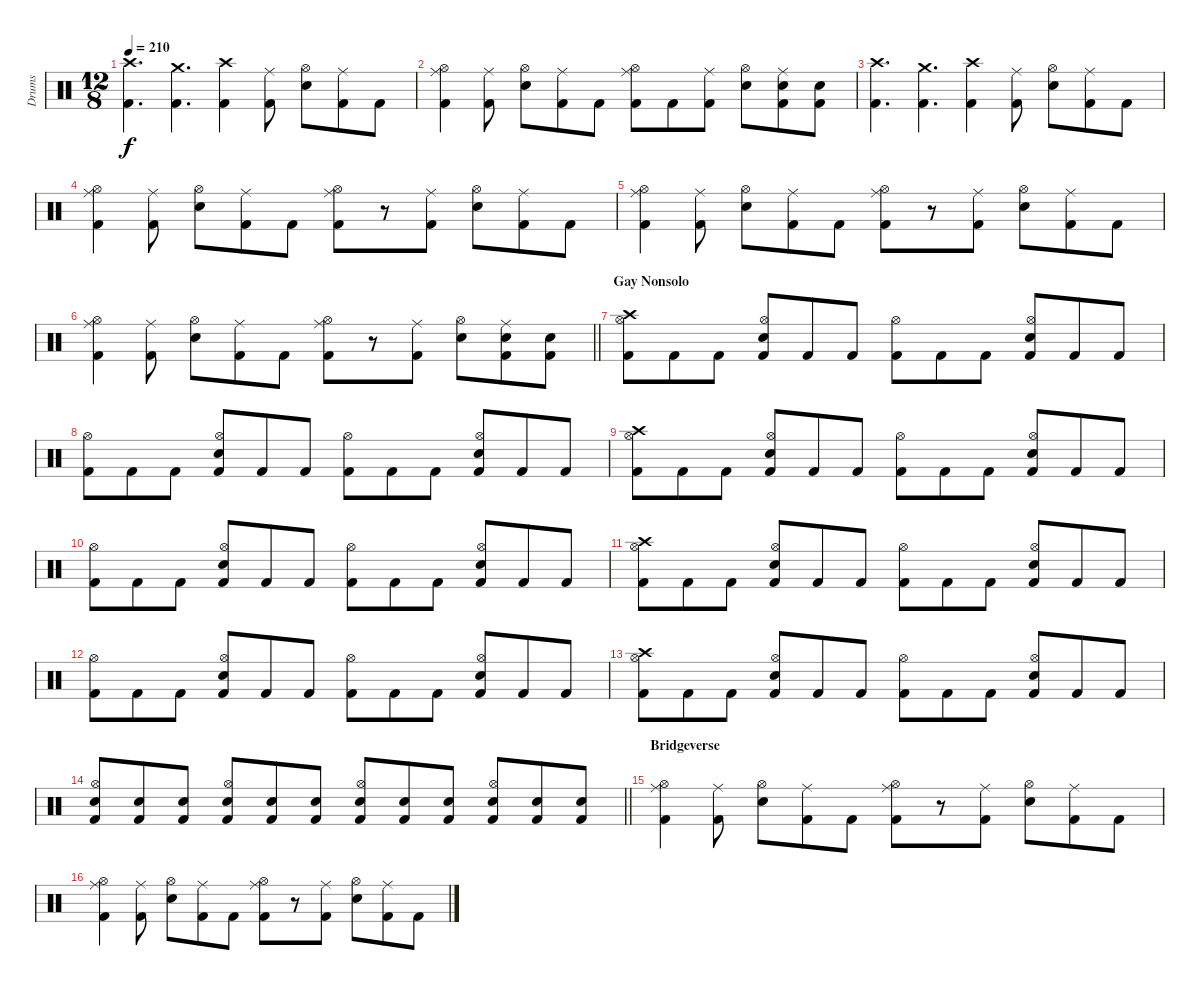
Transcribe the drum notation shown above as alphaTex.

\track ("Drums" "Drums") {instrument percussion}
\staff {score}
\articulation defaults
\ts (12 8)
\tempo 210
\clef neutral
\ks c
("Crash high (hit)" "Kick (hit) 2").4{d dy f} ("Crash medium (hit)" "Kick (hit) 2").4{d} ("Crash high (hit)" "Kick (hit) 2").4 ("Ride (middle)" "Kick (hit) 2").8 ("Hi-Hat (open)" "Snare (hit) 2").8 ("Ride (middle)" "Kick (hit) 2").8 "Kick (hit) 2".8 |
("Ride (middle)" "Hi-Hat (open)" "Kick (hit) 2").4 ("Ride (middle)" "Kick (hit) 2").8 ("Hi-Hat (open)" "Snare (hit) 2").8 ("Ride (middle)" "Kick (hit) 2").8 "Kick (hit) 2".8 ("Ride (middle)" "Hi-Hat (open)" "Kick (hit) 2").8 "Kick (hit) 2".8 ("Ride (middle)" "Kick (hit) 2").8 ("Hi-Hat (open)" "Snare (hit) 2").8 ("Ride (middle)" "Snare (hit) 2" "Kick (hit) 2").8 ("Snare (hit) 2" "Kick (hit) 2").8 |
("Crash high (hit)" "Kick (hit) 2").4{d} ("Crash medium (hit)" "Kick (hit) 2").4{d} ("Crash high (hit)" "Kick (hit) 2").4 ("Ride (middle)" "Kick (hit) 2").8 ("Hi-Hat (open)" "Snare (hit) 2").8 ("Ride (middle)" "Kick (hit) 2").8 "Kick (hit) 2".8 |
("Ride (middle)" "Hi-Hat (open)" "Kick (hit) 2").4 ("Ride (middle)" "Kick (hit) 2").8 ("Hi-Hat (open)" "Snare (hit) 2").8 ("Ride (middle)" "Kick (hit) 2").8 "Kick (hit) 2".8 ("Ride (middle)" "Hi-Hat (open)" "Kick (hit) 2").8 r.8 ("Ride (middle)" "Kick (hit) 2").8 ("Hi-Hat (open)" "Snare (hit) 2").8 ("Ride (middle)" "Kick (hit) 2").8 "Kick (hit) 2".8 |
("Ride (middle)" "Hi-Hat (open)" "Kick (hit) 2").4 ("Ride (middle)" "Kick (hit) 2").8 ("Hi-Hat (open)" "Snare (hit) 2").8 ("Ride (middle)" "Kick (hit) 2").8 "Kick (hit) 2".8 ("Ride (middle)" "Hi-Hat (open)" "Kick (hit) 2").8 r.8 ("Ride (middle)" "Kick (hit) 2").8 ("Hi-Hat (open)" "Snare (hit) 2").8 ("Ride (middle)" "Kick (hit) 2").8 "Kick (hit) 2".8 |
\barLineRight lightlight
("Ride (middle)" "Hi-Hat (open)" "Kick (hit) 2").4 ("Ride (middle)" "Kick (hit) 2").8 ("Hi-Hat (open)" "Snare (hit) 2").8 ("Ride (middle)" "Kick (hit) 2").8 "Kick (hit) 2".8 ("Ride (middle)" "Hi-Hat (open)" "Kick (hit) 2").8 r.8 ("Ride (middle)" "Kick (hit) 2").8 ("Hi-Hat (open)" "Snare (hit) 2").8 ("Ride (middle)" "Snare (hit) 2" "Kick (hit) 2").8 ("Snare (hit) 2" "Kick (hit) 2").8 |
\section ("" "Gay Nonsolo")
("Crash high (hit)" "Hi-Hat (open)" "Kick (hit) 2").8 "Kick (hit) 2".8 "Kick (hit) 2".8 ("Hi-Hat (open)" "Snare (hit) 2" "Kick (hit) 2").8 "Kick (hit) 2".8 "Kick (hit) 2".8 ("Hi-Hat (open)" "Kick (hit) 2").8 "Kick (hit) 2".8 "Kick (hit) 2".8 ("Hi-Hat (open)" "Snare (hit) 2" "Kick (hit) 2").8 "Kick (hit) 2".8 "Kick (hit) 2".8 |
("Hi-Hat (open)" "Kick (hit) 2").8 "Kick (hit) 2".8 "Kick (hit) 2".8 ("Hi-Hat (open)" "Snare (hit) 2" "Kick (hit) 2").8 "Kick (hit) 2".8 "Kick (hit) 2".8 ("Hi-Hat (open)" "Kick (hit) 2").8 "Kick (hit) 2".8 "Kick (hit) 2".8 ("Hi-Hat (open)" "Snare (hit) 2" "Kick (hit) 2").8 "Kick (hit) 2".8 "Kick (hit) 2".8 |
("Crash high (hit)" "Hi-Hat (open)" "Kick (hit) 2").8 "Kick (hit) 2".8 "Kick (hit) 2".8 ("Hi-Hat (open)" "Snare (hit) 2" "Kick (hit) 2").8 "Kick (hit) 2".8 "Kick (hit) 2".8 ("Hi-Hat (open)" "Kick (hit) 2").8 "Kick (hit) 2".8 "Kick (hit) 2".8 ("Hi-Hat (open)" "Snare (hit) 2" "Kick (hit) 2").8 "Kick (hit) 2".8 "Kick (hit) 2".8 |
("Hi-Hat (open)" "Kick (hit) 2").8 "Kick (hit) 2".8 "Kick (hit) 2".8 ("Hi-Hat (open)" "Snare (hit) 2" "Kick (hit) 2").8 "Kick (hit) 2".8 "Kick (hit) 2".8 ("Hi-Hat (open)" "Kick (hit) 2").8 "Kick (hit) 2".8 "Kick (hit) 2".8 ("Hi-Hat (open)" "Snare (hit) 2" "Kick (hit) 2").8 "Kick (hit) 2".8 "Kick (hit) 2".8 |
("Crash high (hit)" "Hi-Hat (open)" "Kick (hit) 2").8 "Kick (hit) 2".8 "Kick (hit) 2".8 ("Hi-Hat (open)" "Snare (hit) 2" "Kick (hit) 2").8 "Kick (hit) 2".8 "Kick (hit) 2".8 ("Hi-Hat (open)" "Kick (hit) 2").8 "Kick (hit) 2".8 "Kick (hit) 2".8 ("Hi-Hat (open)" "Snare (hit) 2" "Kick (hit) 2").8 "Kick (hit) 2".8 "Kick (hit) 2".8 |
("Hi-Hat (open)" "Kick (hit) 2").8 "Kick (hit) 2".8 "Kick (hit) 2".8 ("Hi-Hat (open)" "Snare (hit) 2" "Kick (hit) 2").8 "Kick (hit) 2".8 "Kick (hit) 2".8 ("Hi-Hat (open)" "Kick (hit) 2").8 "Kick (hit) 2".8 "Kick (hit) 2".8 ("Hi-Hat (open)" "Snare (hit) 2" "Kick (hit) 2").8 "Kick (hit) 2".8 "Kick (hit) 2".8 |
("Crash high (hit)" "Hi-Hat (open)" "Kick (hit) 2").8 "Kick (hit) 2".8 "Kick (hit) 2".8 ("Hi-Hat (open)" "Snare (hit) 2" "Kick (hit) 2").8 "Kick (hit) 2".8 "Kick (hit) 2".8 ("Hi-Hat (open)" "Kick (hit) 2").8 "Kick (hit) 2".8 "Kick (hit) 2".8 ("Hi-Hat (open)" "Snare (hit) 2" "Kick (hit) 2").8 "Kick (hit) 2".8 "Kick (hit) 2".8 |
\barLineRight lightlight
("Hi-Hat (open)" "Snare (hit) 2" "Kick (hit) 2").8 ("Snare (hit) 2" "Kick (hit) 2").8 ("Snare (hit) 2" "Kick (hit) 2").8 ("Hi-Hat (open)" "Snare (hit) 2" "Kick (hit) 2").8 ("Snare (hit) 2" "Kick (hit) 2").8 ("Snare (hit) 2" "Kick (hit) 2").8 ("Hi-Hat (open)" "Snare (hit) 2" "Kick (hit) 2").8 ("Snare (hit) 2" "Kick (hit) 2").8 ("Snare (hit) 2" "Kick (hit) 2").8 ("Hi-Hat (open)" "Snare (hit) 2" "Kick (hit) 2").8 ("Snare (hit) 2" "Kick (hit) 2").8 ("Snare (hit) 2" "Kick (hit) 2").8 |
\section ("" "Bridgeverse")
("Ride (middle)" "Hi-Hat (open)" "Kick (hit) 2").4 ("Ride (middle)" "Kick (hit) 2").8 ("Hi-Hat (open)" "Snare (hit) 2").8 ("Ride (middle)" "Kick (hit) 2").8 "Kick (hit) 2".8 ("Ride (middle)" "Hi-Hat (open)" "Kick (hit) 2").8 r.8 ("Ride (middle)" "Kick (hit) 2").8 ("Hi-Hat (open)" "Snare (hit) 2").8 ("Ride (middle)" "Kick (hit) 2").8 "Kick (hit) 2".8 |
("Ride (middle)" "Hi-Hat (open)" "Kick (hit) 2").4 ("Ride (middle)" "Kick (hit) 2").8 ("Hi-Hat (open)" "Snare (hit) 2").8 ("Ride (middle)" "Kick (hit) 2").8 "Kick (hit) 2".8 ("Ride (middle)" "Hi-Hat (open)" "Kick (hit) 2").8 r.8 ("Ride (middle)" "Kick (hit) 2").8 ("Hi-Hat (open)" "Snare (hit) 2").8 ("Ride (middle)" "Kick (hit) 2").8 "Kick (hit) 2".8
